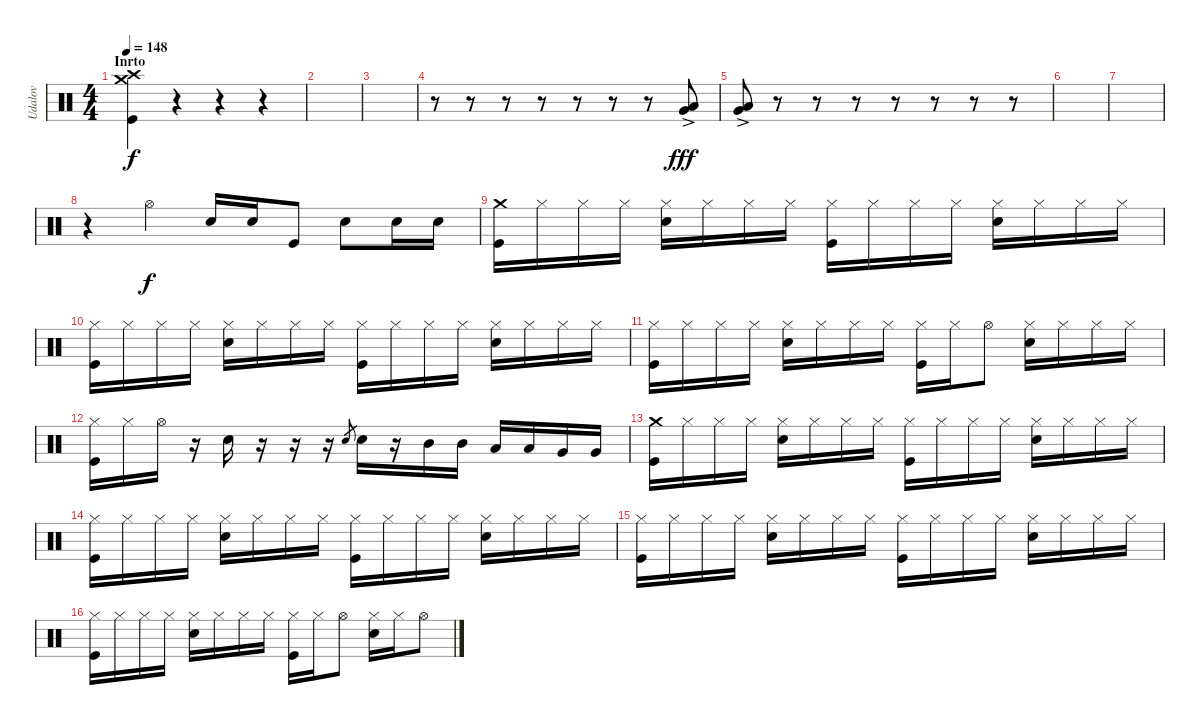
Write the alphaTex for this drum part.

\track ("Udalov" "Udalov") {instrument percussion}
\staff {score}
\articulation defaults
\ts (4 4)
\section ("" "Inrto")
\tempo 148
\clef neutral
\ks c
("Kick (hit)" "Crash medium (hit)" "Crash high (hit)").4{dy f} r.4 r.4 r.4 |
|
|
r.8 r.8 r.8 r.8 r.8 r.8 r.8 ("Low Floor Tom (hit)"{ac} "Very Low Tom (hit)").8{dy fff} |
("Low Floor Tom (hit)"{ac} "Very Low Tom (hit)").8 r.8 r.8 r.8 r.8 r.8 r.8 r.8 |
|
|
r.4 "Hi-Hat (open)".4{dy f} "Electric Snare (hit)".16 "Electric Snare (hit)".16 "Kick (hit)".8 "Electric Snare (hit)".8 "Electric Snare (hit)".16 "Electric Snare (hit)".16 |
("Kick (hit)" "Crash medium (hit)").16 "Hi-Hat (closed)".16 "Hi-Hat (closed)".16 "Hi-Hat (closed)".16 ("Electric Snare (hit)" "Hi-Hat (closed)").16 "Hi-Hat (closed)".16 "Hi-Hat (closed)".16 "Hi-Hat (closed)".16 ("Kick (hit)" "Hi-Hat (closed)").16 "Hi-Hat (closed)".16 "Hi-Hat (closed)".16 "Hi-Hat (closed)".16 ("Electric Snare (hit)" "Hi-Hat (closed)").16 "Hi-Hat (closed)".16 "Hi-Hat (closed)".16 "Hi-Hat (closed)".16 |
("Kick (hit)" "Hi-Hat (closed)").16 "Hi-Hat (closed)".16 "Hi-Hat (closed)".16 "Hi-Hat (closed)".16 ("Electric Snare (hit)" "Hi-Hat (closed)").16 "Hi-Hat (closed)".16 "Hi-Hat (closed)".16 "Hi-Hat (closed)".16 ("Kick (hit)" "Hi-Hat (closed)").16 "Hi-Hat (closed)".16 "Hi-Hat (closed)".16 "Hi-Hat (closed)".16 ("Electric Snare (hit)" "Hi-Hat (closed)").16 "Hi-Hat (closed)".16 "Hi-Hat (closed)".16 "Hi-Hat (closed)".16 |
("Kick (hit)" "Hi-Hat (closed)").16 "Hi-Hat (closed)".16 "Hi-Hat (closed)".16 "Hi-Hat (closed)".16 ("Electric Snare (hit)" "Hi-Hat (closed)").16 "Hi-Hat (closed)".16 "Hi-Hat (closed)".16 "Hi-Hat (closed)".16 ("Kick (hit)" "Hi-Hat (closed)").16 "Hi-Hat (closed)".16 "Hi-Hat (open)".8 ("Electric Snare (hit)" "Hi-Hat (closed)").16 "Hi-Hat (closed)".16 "Hi-Hat (closed)".16 "Hi-Hat (closed)".16 |
("Kick (hit)" "Hi-Hat (closed)").16 "Hi-Hat (closed)".16 "Hi-Hat (open)".16 r.16 "Electric Snare (hit)".16 r.16 r.16 r.16 "Electric Snare (hit)".8{gr} "Electric Snare (hit)".16 r.16 "Mid Tom (hit)".16 "Mid Tom (hit)".16 "Low Tom (hit)".16 "Low Tom (hit)".16 "Very Low Tom (hit)".16 "Very Low Tom (hit)".16 |
("Kick (hit)" "Crash medium (hit)").16 "Hi-Hat (closed)".16 "Hi-Hat (closed)".16 "Hi-Hat (closed)".16 ("Electric Snare (hit)" "Hi-Hat (closed)").16 "Hi-Hat (closed)".16 "Hi-Hat (closed)".16 "Hi-Hat (closed)".16 ("Kick (hit)" "Hi-Hat (closed)").16 "Hi-Hat (closed)".16 "Hi-Hat (closed)".16 "Hi-Hat (closed)".16 ("Electric Snare (hit)" "Hi-Hat (closed)").16 "Hi-Hat (closed)".16 "Hi-Hat (closed)".16 "Hi-Hat (closed)".16 |
("Kick (hit)" "Hi-Hat (closed)").16 "Hi-Hat (closed)".16 "Hi-Hat (closed)".16 "Hi-Hat (closed)".16 ("Electric Snare (hit)" "Hi-Hat (closed)").16 "Hi-Hat (closed)".16 "Hi-Hat (closed)".16 "Hi-Hat (closed)".16 ("Kick (hit)" "Hi-Hat (closed)").16 "Hi-Hat (closed)".16 "Hi-Hat (closed)".16 "Hi-Hat (closed)".16 ("Electric Snare (hit)" "Hi-Hat (closed)").16 "Hi-Hat (closed)".16 "Hi-Hat (closed)".16 "Hi-Hat (closed)".16 |
("Kick (hit)" "Hi-Hat (closed)").16 "Hi-Hat (closed)".16 "Hi-Hat (closed)".16 "Hi-Hat (closed)".16 ("Electric Snare (hit)" "Hi-Hat (closed)").16 "Hi-Hat (closed)".16 "Hi-Hat (closed)".16 "Hi-Hat (closed)".16 ("Kick (hit)" "Hi-Hat (closed)").16 "Hi-Hat (closed)".16 "Hi-Hat (closed)".16 "Hi-Hat (closed)".16 ("Electric Snare (hit)" "Hi-Hat (closed)").16 "Hi-Hat (closed)".16 "Hi-Hat (closed)".16 "Hi-Hat (closed)".16 |
("Kick (hit)" "Hi-Hat (closed)").16 "Hi-Hat (closed)".16 "Hi-Hat (closed)".16 "Hi-Hat (closed)".16 ("Electric Snare (hit)" "Hi-Hat (closed)").16 "Hi-Hat (closed)".16 "Hi-Hat (closed)".16 "Hi-Hat (closed)".16 ("Kick (hit)" "Hi-Hat (closed)").16 "Hi-Hat (closed)".16 "Hi-Hat (open)".8 ("Electric Snare (hit)" "Hi-Hat (closed)").16 "Hi-Hat (closed)".16 "Hi-Hat (open)".8
